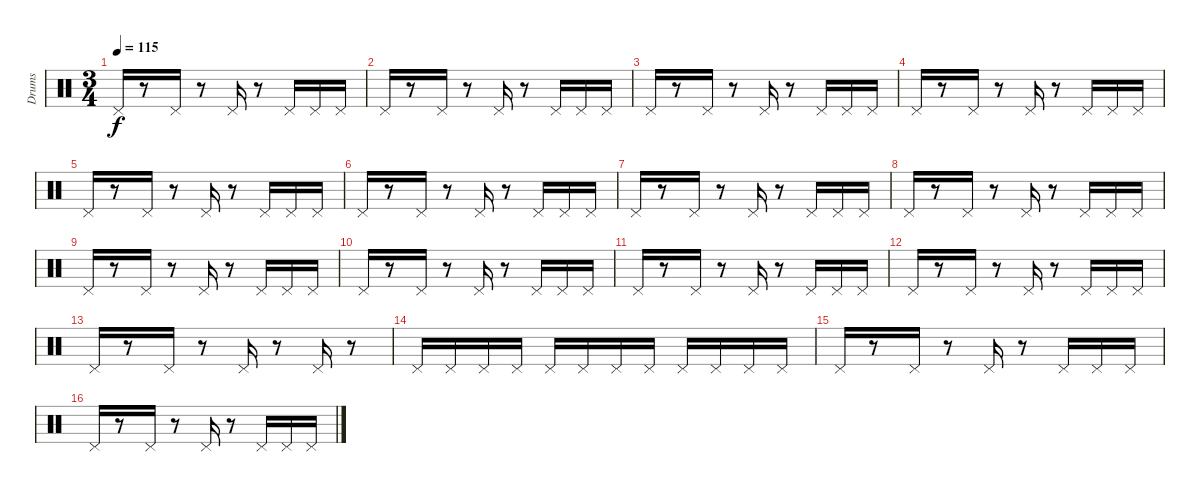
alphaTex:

\track ("Drums" "Drums") {instrument percussion}
\staff {score}
\articulation defaults
\ts (3 4)
\tempo 115
\clef neutral
\ks c "Pedal Hi-Hat (hit)".16{dy f}
r.8 "Pedal Hi-Hat (hit)".16 r.8 "Pedal Hi-Hat (hit)".16 r.8 "Pedal Hi-Hat (hit)".16 "Pedal Hi-Hat (hit)".16 "Pedal Hi-Hat (hit)".16 |
"Pedal Hi-Hat (hit)".16 r.8 "Pedal Hi-Hat (hit)".16 r.8 "Pedal Hi-Hat (hit)".16 r.8 "Pedal Hi-Hat (hit)".16 "Pedal Hi-Hat (hit)".16 "Pedal Hi-Hat (hit)".16 |
"Pedal Hi-Hat (hit)".16 r.8 "Pedal Hi-Hat (hit)".16 r.8 "Pedal Hi-Hat (hit)".16 r.8 "Pedal Hi-Hat (hit)".16 "Pedal Hi-Hat (hit)".16 "Pedal Hi-Hat (hit)".16 |
"Pedal Hi-Hat (hit)".16 r.8 "Pedal Hi-Hat (hit)".16 r.8 "Pedal Hi-Hat (hit)".16 r.8 "Pedal Hi-Hat (hit)".16 "Pedal Hi-Hat (hit)".16 "Pedal Hi-Hat (hit)".16 |
"Pedal Hi-Hat (hit)".16 r.8 "Pedal Hi-Hat (hit)".16 r.8 "Pedal Hi-Hat (hit)".16 r.8 "Pedal Hi-Hat (hit)".16 "Pedal Hi-Hat (hit)".16 "Pedal Hi-Hat (hit)".16 |
"Pedal Hi-Hat (hit)".16 r.8 "Pedal Hi-Hat (hit)".16 r.8 "Pedal Hi-Hat (hit)".16 r.8 "Pedal Hi-Hat (hit)".16 "Pedal Hi-Hat (hit)".16 "Pedal Hi-Hat (hit)".16 |
"Pedal Hi-Hat (hit)".16 r.8 "Pedal Hi-Hat (hit)".16 r.8 "Pedal Hi-Hat (hit)".16 r.8 "Pedal Hi-Hat (hit)".16 "Pedal Hi-Hat (hit)".16 "Pedal Hi-Hat (hit)".16 |
"Pedal Hi-Hat (hit)".16 r.8 "Pedal Hi-Hat (hit)".16 r.8 "Pedal Hi-Hat (hit)".16 r.8 "Pedal Hi-Hat (hit)".16 "Pedal Hi-Hat (hit)".16 "Pedal Hi-Hat (hit)".16 |
"Pedal Hi-Hat (hit)".16 r.8 "Pedal Hi-Hat (hit)".16 r.8 "Pedal Hi-Hat (hit)".16 r.8 "Pedal Hi-Hat (hit)".16 "Pedal Hi-Hat (hit)".16 "Pedal Hi-Hat (hit)".16 |
"Pedal Hi-Hat (hit)".16 r.8 "Pedal Hi-Hat (hit)".16 r.8 "Pedal Hi-Hat (hit)".16 r.8 "Pedal Hi-Hat (hit)".16 "Pedal Hi-Hat (hit)".16 "Pedal Hi-Hat (hit)".16 |
"Pedal Hi-Hat (hit)".16 r.8 "Pedal Hi-Hat (hit)".16 r.8 "Pedal Hi-Hat (hit)".16 r.8 "Pedal Hi-Hat (hit)".16 "Pedal Hi-Hat (hit)".16 "Pedal Hi-Hat (hit)".16 |
"Pedal Hi-Hat (hit)".16 r.8 "Pedal Hi-Hat (hit)".16 r.8 "Pedal Hi-Hat (hit)".16 r.8 "Pedal Hi-Hat (hit)".16 "Pedal Hi-Hat (hit)".16 "Pedal Hi-Hat (hit)".16 |
"Pedal Hi-Hat (hit)".16 r.8 "Pedal Hi-Hat (hit)".16 r.8 "Pedal Hi-Hat (hit)".16 r.8 "Pedal Hi-Hat (hit)".16 r.8 |
"Pedal Hi-Hat (hit)".16 "Pedal Hi-Hat (hit)".16 "Pedal Hi-Hat (hit)".16 "Pedal Hi-Hat (hit)".16 "Pedal Hi-Hat (hit)".16 "Pedal Hi-Hat (hit)".16 "Pedal Hi-Hat (hit)".16 "Pedal Hi-Hat (hit)".16 "Pedal Hi-Hat (hit)".16 "Pedal Hi-Hat (hit)".16 "Pedal Hi-Hat (hit)".16 "Pedal Hi-Hat (hit)".16 |
"Pedal Hi-Hat (hit)".16 r.8 "Pedal Hi-Hat (hit)".16 r.8 "Pedal Hi-Hat (hit)".16 r.8 "Pedal Hi-Hat (hit)".16 "Pedal Hi-Hat (hit)".16 "Pedal Hi-Hat (hit)".16 |
"Pedal Hi-Hat (hit)".16 r.8 "Pedal Hi-Hat (hit)".16 r.8 "Pedal Hi-Hat (hit)".16 r.8 "Pedal Hi-Hat (hit)".16 "Pedal Hi-Hat (hit)".16 "Pedal Hi-Hat (hit)".16
